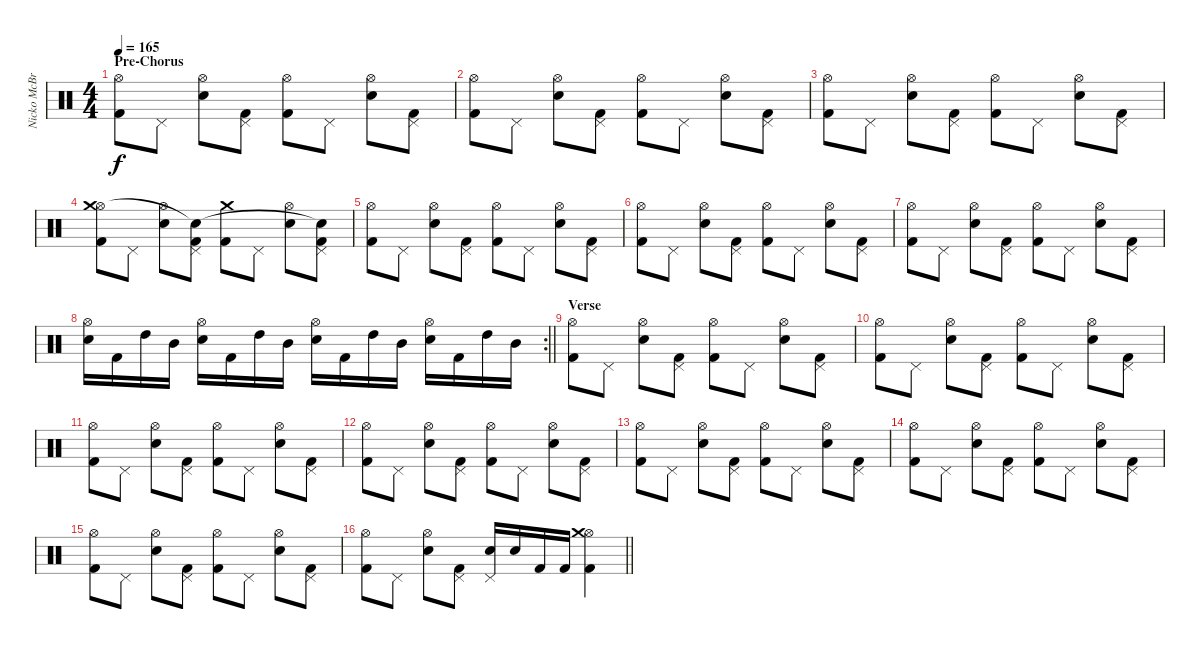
\track ("Nicko McBrain" "Nicko McBr") {instrument percussion}
\staff {score}
\articulation defaults
\ts (4 4)
\section ("" "Pre-Chorus")
\tempo 165
\clef neutral
\ks c
("Kick (hit) 2" "Hi-Hat (open)").8{dy f} "Pedal Hi-Hat (hit)".8 ("Snare (hit) 2" "Hi-Hat (open)").8 ("Kick (hit) 2" "Pedal Hi-Hat (hit)").8 ("Kick (hit) 2" "Hi-Hat (open)").8 "Pedal Hi-Hat (hit)".8 ("Snare (hit) 2" "Hi-Hat (open)").8 ("Kick (hit) 2" "Pedal Hi-Hat (hit)").8 |
("Kick (hit) 2" "Hi-Hat (open)").8 "Pedal Hi-Hat (hit)".8 ("Snare (hit) 2" "Hi-Hat (open)").8 ("Kick (hit) 2" "Pedal Hi-Hat (hit)").8 ("Kick (hit) 2" "Hi-Hat (open)").8 "Pedal Hi-Hat (hit)".8 ("Snare (hit) 2" "Hi-Hat (open)").8 ("Kick (hit) 2" "Pedal Hi-Hat (hit)").8 |
("Kick (hit) 2" "Hi-Hat (open)").8 "Pedal Hi-Hat (hit)".8 ("Snare (hit) 2" "Hi-Hat (open)").8 ("Kick (hit) 2" "Pedal Hi-Hat (hit)").8 ("Kick (hit) 2" "Hi-Hat (open)").8 "Pedal Hi-Hat (hit)".8 ("Snare (hit) 2" "Hi-Hat (open)").8 ("Kick (hit) 2" "Pedal Hi-Hat (hit)").8 |
("Kick (hit) 2" "Hi-Hat (open)" "Crash medium (hit)").8 "Pedal Hi-Hat (hit)".8 ("Snare (hit) 2" "Hi-Hat (open)").8 ("Kick (hit) 2" "Pedal Hi-Hat (hit)" "Snare (hit)"{t}).8 ("Kick (hit) 2" "Crash medium (hit)").8 "Pedal Hi-Hat (hit)".8 ("Snare (hit) 2" "Hi-Hat (open)").8 ("Kick (hit) 2" "Pedal Hi-Hat (hit)" "Snare (hit)"{t}).8 |
("Kick (hit) 2" "Hi-Hat (open)").8 "Pedal Hi-Hat (hit)".8 ("Snare (hit) 2" "Hi-Hat (open)").8 ("Kick (hit) 2" "Pedal Hi-Hat (hit)").8 ("Kick (hit) 2" "Hi-Hat (open)").8 "Pedal Hi-Hat (hit)".8 ("Snare (hit) 2" "Hi-Hat (open)").8 ("Kick (hit) 2" "Pedal Hi-Hat (hit)").8 |
("Kick (hit) 2" "Hi-Hat (open)").8 "Pedal Hi-Hat (hit)".8 ("Snare (hit) 2" "Hi-Hat (open)").8 ("Kick (hit) 2" "Pedal Hi-Hat (hit)").8 ("Kick (hit) 2" "Hi-Hat (open)").8 "Pedal Hi-Hat (hit)".8 ("Snare (hit) 2" "Hi-Hat (open)").8 ("Kick (hit) 2" "Pedal Hi-Hat (hit)").8 |
("Kick (hit) 2" "Hi-Hat (open)").8 "Pedal Hi-Hat (hit)".8 ("Snare (hit) 2" "Hi-Hat (open)").8 ("Kick (hit) 2" "Pedal Hi-Hat (hit)").8 ("Kick (hit) 2" "Hi-Hat (open)").8 "Pedal Hi-Hat (hit)".8 ("Snare (hit) 2" "Hi-Hat (open)").8 ("Kick (hit) 2" "Pedal Hi-Hat (hit)").8 |
\rc 2
\barLineRight lightlight
("Snare (hit) 2" "Hi-Hat (open)").16 "Kick (hit) 2".16 "High Tom (hit)".16 "Mid Tom (hit)".16 ("Snare (hit) 2" "Hi-Hat (open)").16 "Kick (hit) 2".16 "High Tom (hit)".16 "Mid Tom (hit)".16 ("Snare (hit) 2" "Hi-Hat (open)").16 "Kick (hit) 2".16 "High Tom (hit)".16 "Mid Tom (hit)".16 ("Snare (hit) 2" "Hi-Hat (open)").16 "Kick (hit) 2".16 "High Tom (hit)".16 "Mid Tom (hit)".16 |
\section ("" "Verse")
("Kick (hit) 2" "Hi-Hat (open)").8 "Pedal Hi-Hat (hit)".8 ("Snare (hit) 2" "Hi-Hat (open)").8 ("Kick (hit) 2" "Pedal Hi-Hat (hit)").8 ("Kick (hit) 2" "Hi-Hat (open)").8 "Pedal Hi-Hat (hit)".8 ("Snare (hit) 2" "Hi-Hat (open)").8 ("Kick (hit) 2" "Pedal Hi-Hat (hit)").8 |
("Kick (hit) 2" "Hi-Hat (open)").8 "Pedal Hi-Hat (hit)".8 ("Snare (hit) 2" "Hi-Hat (open)").8 ("Kick (hit) 2" "Pedal Hi-Hat (hit)").8 ("Kick (hit) 2" "Hi-Hat (open)").8 "Pedal Hi-Hat (hit)".8 ("Snare (hit) 2" "Hi-Hat (open)").8 ("Kick (hit) 2" "Pedal Hi-Hat (hit)").8 |
("Kick (hit) 2" "Hi-Hat (open)").8 "Pedal Hi-Hat (hit)".8 ("Snare (hit) 2" "Hi-Hat (open)").8 ("Kick (hit) 2" "Pedal Hi-Hat (hit)").8 ("Kick (hit) 2" "Hi-Hat (open)").8 "Pedal Hi-Hat (hit)".8 ("Snare (hit) 2" "Hi-Hat (open)").8 ("Kick (hit) 2" "Pedal Hi-Hat (hit)").8 |
("Kick (hit) 2" "Hi-Hat (open)").8 "Pedal Hi-Hat (hit)".8 ("Snare (hit) 2" "Hi-Hat (open)").8 ("Kick (hit) 2" "Pedal Hi-Hat (hit)").8 ("Kick (hit) 2" "Hi-Hat (open)").8 "Pedal Hi-Hat (hit)".8 ("Snare (hit) 2" "Hi-Hat (open)").8 ("Kick (hit) 2" "Pedal Hi-Hat (hit)").8 |
("Kick (hit) 2" "Hi-Hat (open)").8 "Pedal Hi-Hat (hit)".8 ("Snare (hit) 2" "Hi-Hat (open)").8 ("Kick (hit) 2" "Pedal Hi-Hat (hit)").8 ("Kick (hit) 2" "Hi-Hat (open)").8 "Pedal Hi-Hat (hit)".8 ("Snare (hit) 2" "Hi-Hat (open)").8 ("Kick (hit) 2" "Pedal Hi-Hat (hit)").8 |
("Kick (hit) 2" "Hi-Hat (open)").8 "Pedal Hi-Hat (hit)".8 ("Snare (hit) 2" "Hi-Hat (open)").8 ("Kick (hit) 2" "Pedal Hi-Hat (hit)").8 ("Kick (hit) 2" "Hi-Hat (open)").8 "Pedal Hi-Hat (hit)".8 ("Snare (hit) 2" "Hi-Hat (open)").8 ("Kick (hit) 2" "Pedal Hi-Hat (hit)").8 |
("Kick (hit) 2" "Hi-Hat (open)").8 "Pedal Hi-Hat (hit)".8 ("Snare (hit) 2" "Hi-Hat (open)").8 ("Kick (hit) 2" "Pedal Hi-Hat (hit)").8 ("Kick (hit) 2" "Hi-Hat (open)").8 "Pedal Hi-Hat (hit)".8 ("Snare (hit) 2" "Hi-Hat (open)").8 ("Kick (hit) 2" "Pedal Hi-Hat (hit)").8 |
\barLineRight lightlight
("Kick (hit) 2" "Hi-Hat (open)").8 "Pedal Hi-Hat (hit)".8 ("Snare (hit) 2" "Hi-Hat (open)").8 ("Kick (hit) 2" "Pedal Hi-Hat (hit)").8 ("Snare (hit) 2" "Pedal Hi-Hat (hit)").16 "Snare (hit) 2".16 "Kick (hit) 2".16 "Kick (hit) 2".16 ("Kick (hit) 2" "Hi-Hat (open)" "Crash medium (hit)").4
